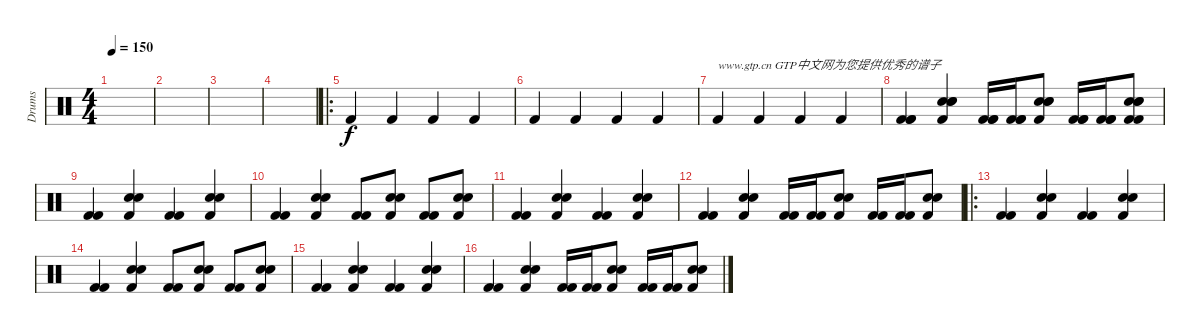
\track ("Drums" "Drums") {instrument percussion}
\staff {score}
\articulation defaults
\ts (4 4)
\tempo 150
\clef neutral
\ks c
|
|
|
|
\ro "Kick (hit) 2".4 "Kick (hit) 2".4 "Kick (hit) 2".4 "Kick (hit) 2".4
|
"Kick (hit) 2".4 "Kick (hit) 2".4 "Kick (hit) 2".4 "Kick (hit) 2".4 |
"Kick (hit) 2".4{txt "www.gtp.cn GTP中文网为您提供优秀的谱子"} "Kick (hit) 2".4 "Kick (hit) 2".4 "Kick (hit) 2".4 |
("Kick (hit) 2" "Kick (hit) 2" "Kick (hit) 2").4 ("Snare (hit) 2" "Snare (hit) 2" "Snare (hit) 2" "Kick (hit) 2").4 ("Kick (hit) 2" "Kick (hit) 2" "Kick (hit) 2").16 ("Kick (hit) 2" "Kick (hit) 2" "Kick (hit) 2").16 ("Snare (hit) 2" "Snare (hit) 2" "Snare (hit) 2" "Kick (hit) 2").8 ("Kick (hit) 2" "Kick (hit) 2" "Kick (hit) 2").16 ("Kick (hit) 2" "Kick (hit) 2" "Kick (hit) 2").16 ("Snare (hit) 2" "Snare (hit) 2" "Snare (hit) 2" "Kick (hit) 2" "Kick (hit) 2").8 |
("Kick (hit) 2" "Kick (hit) 2").4 ("Snare (hit) 2" "Snare (hit) 2" "Kick (hit) 2").4 ("Kick (hit) 2" "Kick (hit) 2").4 ("Snare (hit) 2" "Snare (hit) 2" "Kick (hit) 2").4 |
("Kick (hit) 2" "Kick (hit) 2").4 ("Snare (hit) 2" "Snare (hit) 2" "Kick (hit) 2").4 ("Kick (hit) 2" "Kick (hit) 2").8 ("Snare (hit) 2" "Snare (hit) 2" "Kick (hit) 2").8 ("Kick (hit) 2" "Kick (hit) 2").8 ("Snare (hit) 2" "Snare (hit) 2" "Kick (hit) 2").8 |
("Kick (hit) 2" "Kick (hit) 2").4 ("Snare (hit) 2" "Snare (hit) 2" "Kick (hit) 2").4 ("Kick (hit) 2" "Kick (hit) 2").4 ("Snare (hit) 2" "Snare (hit) 2" "Kick (hit) 2").4 |
("Kick (hit) 2" "Kick (hit) 2").4 ("Snare (hit) 2" "Snare (hit) 2" "Kick (hit) 2").4 ("Kick (hit) 2" "Kick (hit) 2").16 ("Kick (hit) 2" "Kick (hit) 2").16 ("Snare (hit) 2" "Snare (hit) 2" "Kick (hit) 2").8 ("Kick (hit) 2" "Kick (hit) 2").16 ("Kick (hit) 2" "Kick (hit) 2").16 ("Snare (hit) 2" "Snare (hit) 2" "Kick (hit) 2").8 |
\ro
("Kick (hit) 2" "Kick (hit) 2").4 ("Snare (hit) 2" "Snare (hit) 2" "Kick (hit) 2").4 ("Kick (hit) 2" "Kick (hit) 2").4 ("Snare (hit) 2" "Snare (hit) 2" "Kick (hit) 2").4 |
("Kick (hit) 2" "Kick (hit) 2").4 ("Snare (hit) 2" "Snare (hit) 2" "Kick (hit) 2").4 ("Kick (hit) 2" "Kick (hit) 2").8 ("Snare (hit) 2" "Snare (hit) 2" "Kick (hit) 2").8 ("Kick (hit) 2" "Kick (hit) 2").8 ("Snare (hit) 2" "Snare (hit) 2" "Kick (hit) 2").8 |
("Kick (hit) 2" "Kick (hit) 2").4 ("Snare (hit) 2" "Snare (hit) 2" "Kick (hit) 2").4 ("Kick (hit) 2" "Kick (hit) 2").4 ("Snare (hit) 2" "Snare (hit) 2" "Kick (hit) 2").4 |
("Kick (hit) 2" "Kick (hit) 2").4 ("Snare (hit) 2" "Snare (hit) 2" "Kick (hit) 2").4 ("Kick (hit) 2" "Kick (hit) 2").16 ("Kick (hit) 2" "Kick (hit) 2").16 ("Snare (hit) 2" "Snare (hit) 2" "Kick (hit) 2").8 ("Kick (hit) 2" "Kick (hit) 2").16 ("Kick (hit) 2" "Kick (hit) 2").16 ("Snare (hit) 2" "Snare (hit) 2" "Kick (hit) 2").8
